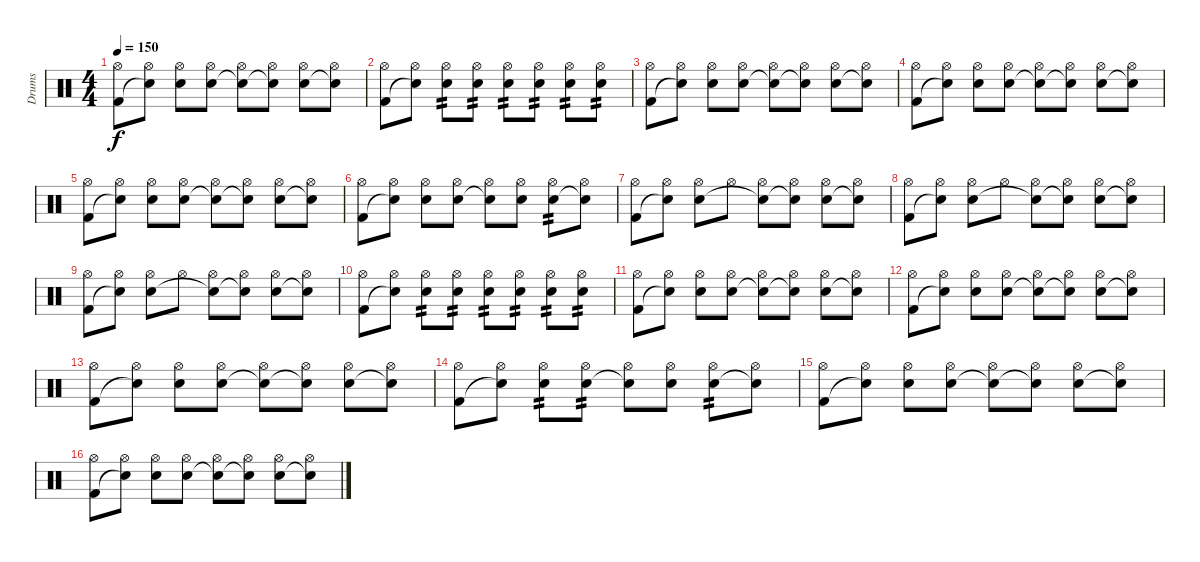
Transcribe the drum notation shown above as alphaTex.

\track ("Drums" "Drums") {instrument percussion}
\staff {score}
\articulation defaults
\ts (4 4)
\tempo 150
\clef neutral
\ks c
("Hi-Hat (open)" "Kick (hit) 2").8{dy f} ("Hi-Hat (open)" "Snare (hit)"{t}).8 ("Hi-Hat (open)" "Electric Snare (hit)").8 ("Hi-Hat (open)" "Electric Snare (hit)").8 ("Hi-Hat (open)" "Snare (hit)"{t}).8 ("Hi-Hat (open)" "Electric Snare (hit)"{t}).8 ("Hi-Hat (open)" "Electric Snare (hit)").8 ("Hi-Hat (open)" "Snare (hit)"{t}).8 |
("Hi-Hat (open)" "Kick (hit) 2").8 ("Hi-Hat (open)" "Snare (hit)"{t}).8 ("Hi-Hat (open)" "Electric Snare (hit)").8{tp 2} ("Hi-Hat (open)" "Electric Snare (hit)").8{tp 2} ("Hi-Hat (open)" "Electric Snare (hit)").8{tp 2} ("Hi-Hat (open)" "Electric Snare (hit)").8{tp 2} ("Hi-Hat (open)" "Electric Snare (hit)").8{tp 2} ("Hi-Hat (open)" "Electric Snare (hit)").8{tp 2} |
("Hi-Hat (open)" "Kick (hit) 2").8 ("Hi-Hat (open)" "Snare (hit)"{t}).8 ("Hi-Hat (open)" "Electric Snare (hit)").8 ("Hi-Hat (open)" "Electric Snare (hit)").8 ("Hi-Hat (open)" "Snare (hit)"{t}).8 ("Hi-Hat (open)" "Electric Snare (hit)"{t}).8 ("Hi-Hat (open)" "Electric Snare (hit)").8 ("Hi-Hat (open)" "Snare (hit)"{t}).8 |
("Hi-Hat (open)" "Kick (hit) 2").8 ("Hi-Hat (open)" "Snare (hit)"{t}).8 ("Hi-Hat (open)" "Electric Snare (hit)").8 ("Hi-Hat (open)" "Electric Snare (hit)").8 ("Hi-Hat (open)" "Snare (hit)"{t}).8 ("Hi-Hat (open)" "Electric Snare (hit)"{t}).8 ("Hi-Hat (open)" "Electric Snare (hit)").8 ("Hi-Hat (open)" "Snare (hit)"{t}).8 |
("Hi-Hat (open)" "Kick (hit) 2").8 ("Hi-Hat (open)" "Snare (hit)"{t}).8 ("Hi-Hat (open)" "Electric Snare (hit)").8 ("Hi-Hat (open)" "Electric Snare (hit)").8 ("Hi-Hat (open)" "Snare (hit)"{t}).8 ("Hi-Hat (open)" "Electric Snare (hit)"{t}).8 ("Hi-Hat (open)" "Electric Snare (hit)").8 ("Hi-Hat (open)" "Snare (hit)"{t}).8 |
("Hi-Hat (open)" "Kick (hit) 2").8 ("Hi-Hat (open)" "Snare (hit)"{t}).8 ("Hi-Hat (open)" "Electric Snare (hit)").8 ("Hi-Hat (open)" "Electric Snare (hit)").8 ("Hi-Hat (open)" "Snare (hit)"{t}).8 ("Hi-Hat (open)" "Electric Snare (hit)").8 ("Hi-Hat (open)" "Electric Snare (hit)").8{tp 2} ("Hi-Hat (open)" "Snare (hit)"{t}).8 |
("Hi-Hat (open)" "Kick (hit) 2").8 ("Hi-Hat (open)" "Snare (hit)"{t}).8 ("Hi-Hat (open)" "Electric Snare (hit)").8 "Hi-Hat (open)".8 ("Hi-Hat (open)" "Snare (hit)"{t}).8 ("Hi-Hat (open)" "Electric Snare (hit)"{t}).8 ("Hi-Hat (open)" "Electric Snare (hit)").8 ("Hi-Hat (open)" "Snare (hit)"{t}).8 |
("Hi-Hat (open)" "Kick (hit) 2").8 ("Hi-Hat (open)" "Snare (hit)"{t}).8 ("Hi-Hat (open)" "Electric Snare (hit)").8 "Hi-Hat (open)".8 ("Hi-Hat (open)" "Snare (hit)"{t}).8 ("Hi-Hat (open)" "Electric Snare (hit)"{t}).8 ("Hi-Hat (open)" "Electric Snare (hit)").8 ("Hi-Hat (open)" "Snare (hit)"{t}).8 |
("Hi-Hat (open)" "Kick (hit) 2").8 ("Hi-Hat (open)" "Snare (hit)"{t}).8 ("Hi-Hat (open)" "Electric Snare (hit)").8 "Hi-Hat (open)".8 ("Hi-Hat (open)" "Snare (hit)"{t}).8 ("Hi-Hat (open)" "Electric Snare (hit)"{t}).8 ("Hi-Hat (open)" "Electric Snare (hit)").8 ("Hi-Hat (open)" "Snare (hit)"{t}).8 |
("Hi-Hat (open)" "Kick (hit) 2").8 ("Hi-Hat (open)" "Snare (hit)"{t}).8 ("Hi-Hat (open)" "Electric Snare (hit)").8{tp 2} ("Hi-Hat (open)" "Electric Snare (hit)").8{tp 2} ("Hi-Hat (open)" "Electric Snare (hit)").8{tp 2} ("Hi-Hat (open)" "Electric Snare (hit)").8{tp 2} ("Hi-Hat (open)" "Electric Snare (hit)").8{tp 2} ("Hi-Hat (open)" "Electric Snare (hit)").8{tp 2} |
("Hi-Hat (open)" "Kick (hit) 2").8 ("Hi-Hat (open)" "Snare (hit)"{t}).8 ("Hi-Hat (open)" "Electric Snare (hit)").8 ("Hi-Hat (open)" "Electric Snare (hit)").8 ("Hi-Hat (open)" "Snare (hit)"{t}).8 ("Hi-Hat (open)" "Electric Snare (hit)"{t}).8 ("Hi-Hat (open)" "Electric Snare (hit)").8 ("Hi-Hat (open)" "Snare (hit)"{t}).8 |
("Hi-Hat (open)" "Kick (hit) 2").8 ("Hi-Hat (open)" "Snare (hit)"{t}).8 ("Hi-Hat (open)" "Electric Snare (hit)").8 ("Hi-Hat (open)" "Electric Snare (hit)").8 ("Hi-Hat (open)" "Snare (hit)"{t}).8 ("Hi-Hat (open)" "Electric Snare (hit)"{t}).8 ("Hi-Hat (open)" "Electric Snare (hit)").8 ("Hi-Hat (open)" "Snare (hit)"{t}).8 |
("Hi-Hat (open)" "Kick (hit) 2").8 ("Hi-Hat (open)" "Snare (hit)"{t}).8 ("Hi-Hat (open)" "Electric Snare (hit)").8 ("Hi-Hat (open)" "Electric Snare (hit)").8 ("Hi-Hat (open)" "Snare (hit)"{t}).8 ("Hi-Hat (open)" "Electric Snare (hit)"{t}).8 ("Hi-Hat (open)" "Electric Snare (hit)").8 ("Hi-Hat (open)" "Snare (hit)"{t}).8 |
("Hi-Hat (open)" "Kick (hit) 2").8 ("Hi-Hat (open)" "Snare (hit)"{t}).8 ("Hi-Hat (open)" "Electric Snare (hit)").8{tp 2} ("Hi-Hat (open)" "Electric Snare (hit)").8{tp 2} ("Hi-Hat (open)" "Snare (hit)"{t}).8 ("Hi-Hat (open)" "Electric Snare (hit)").8 ("Hi-Hat (open)" "Electric Snare (hit)").8{tp 2} ("Hi-Hat (open)" "Snare (hit)"{t}).8 |
("Hi-Hat (open)" "Kick (hit) 2").8 ("Hi-Hat (open)" "Snare (hit)"{t}).8 ("Hi-Hat (open)" "Electric Snare (hit)").8 ("Hi-Hat (open)" "Electric Snare (hit)").8 ("Hi-Hat (open)" "Snare (hit)"{t}).8 ("Hi-Hat (open)" "Electric Snare (hit)"{t}).8 ("Hi-Hat (open)" "Electric Snare (hit)").8 ("Hi-Hat (open)" "Snare (hit)"{t}).8 |
("Hi-Hat (open)" "Kick (hit) 2").8 ("Hi-Hat (open)" "Snare (hit)"{t}).8 ("Hi-Hat (open)" "Electric Snare (hit)").8 ("Hi-Hat (open)" "Electric Snare (hit)").8 ("Hi-Hat (open)" "Snare (hit)"{t}).8 ("Hi-Hat (open)" "Electric Snare (hit)"{t}).8 ("Hi-Hat (open)" "Electric Snare (hit)").8 ("Hi-Hat (open)" "Snare (hit)"{t}).8
